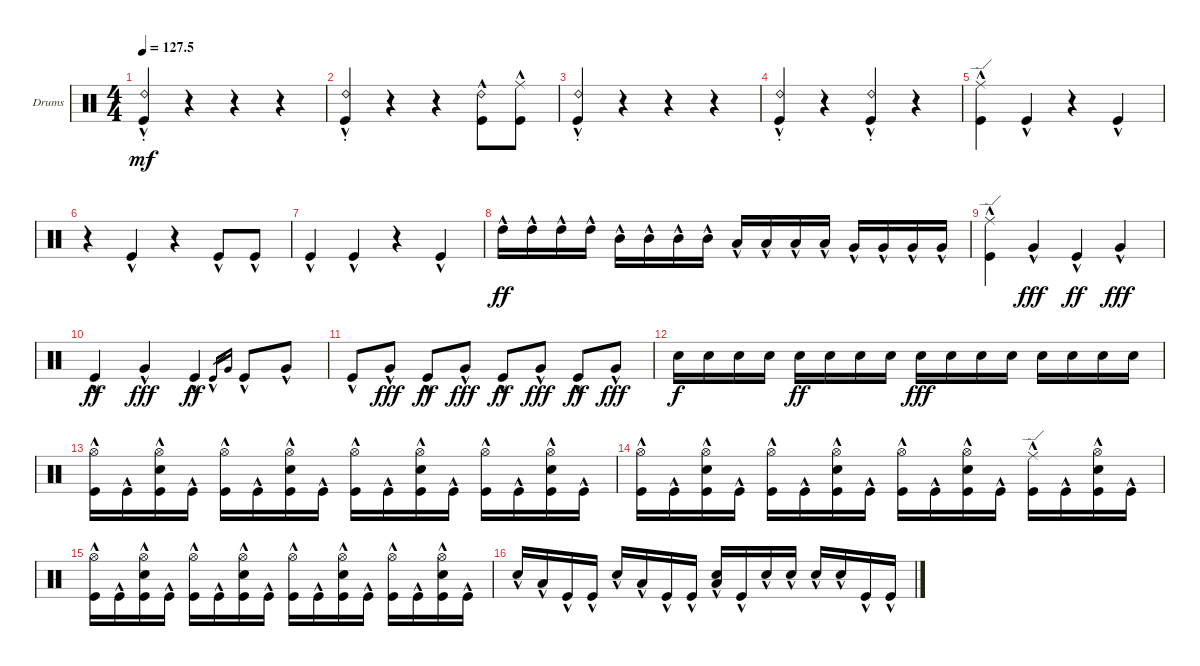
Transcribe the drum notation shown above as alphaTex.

\defaultSystemsLayout 4
\bracketExtendMode groupsimilarinstruments
\firstSystemTrackNameOrientation horizontal
\otherSystemsTrackNameOrientation horizontal
\track ("Drumkit" "Drums") {instrument percussion}
\staff {score}
\articulation defaults
\ts (4 4)
\tempo
127.5
\accidentals auto
\clef neutral
\ottava regular
\simile none
\scale
0.472222
\ks c
("Kick (hit)"{hac} "Ride (bell) 2"{st}).4{dy mf} r.4 r.4 r.4 |
\scale
0.263889 ("Kick (hit)"{hac} "Ride (bell) 2"{st}).4 r.4 r.4 ("Kick (hit)"{hac} "Ride (bell) 2").8 ("Kick (hit)"{hac} "Ride (middle)").8 |
\scale
0.263889 ("Kick (hit)"{hac} "Ride (bell) 2"{st}).4 r.4 r.4 r.4 |
\scale
0.333333 ("Kick (hit)"{hac} "Ride (bell) 2"{st}).4 r.4 ("Kick (hit)"{hac} "Ride (bell) 2"{st}).4 r.4 |
\scale
0.333333 ("Kick (hit)"{hac} "Ride (edge)"{hac}).4 "Kick (hit)"{hac}.4 r.4 "Kick (hit)"{hac}.4 |
r.4 "Kick (hit)"{hac}.4 r.4 "Kick (hit)"{hac}.8 "Kick (hit)"{hac}.8 |
"Kick (hit)"{hac}.4 "Kick (hit)"{hac}.4 r.4 "Kick (hit)"{hac}.4 |
"High Tom (hit)"{hac}.16{dy ff} "High Tom (hit)"{hac}.16 "High Tom (hit)"{hac}.16 "High Tom (hit)"{hac}.16 "Mid Tom (hit)"{hac}.16 "Mid Tom (hit)"{hac}.16 "Mid Tom (hit)"{hac}.16 "Mid Tom (hit)"{hac}.16 "Low Tom (hit)"{hac}.16 "Low Tom (hit)"{hac}.16 "Low Tom (hit)"{hac}.16 "Low Tom (hit)"{hac}.16 "Very Low Tom (hit)"{hac}.16 "Very Low Tom (hit)"{hac}.16 "Very Low Tom (hit)"{hac}.16 "Very Low Tom (hit)"{hac}.16 |
("Kick (hit)"{hac} "Ride (edge)"{hac}).4 "Very Low Tom (hit)"{hac}.4{dy fff} "Kick (hit)"{hac}.4{dy ff} "Very Low Tom (hit)"{hac}.4{dy fff} |
"Kick (hit)"{hac}.4{dy ff} "Very Low Tom (hit)"{hac}.4{dy fff} "Kick (hit)"{hac}.4{dy ff} "Kick (hit)"{hac}.16{gr} "Very Low Tom (hit)".16{gr} "Kick (hit)"{hac}.8 "Very Low Tom (hit)"{hac}.8 |
"Kick (hit)"{hac}.8 "Very Low Tom (hit)"{hac}.8{dy fff} "Kick (hit)"{hac}.8{dy ff} "Very Low Tom (hit)"{hac}.8{dy fff} "Kick (hit)"{hac}.8{dy ff} "Very Low Tom (hit)"{hac}.8{dy fff} "Kick (hit)"{hac}.8{dy ff} "Very Low Tom (hit)"{hac}.8{dy fff} |
"Snare (hit) 2".16{dy f} "Snare (hit) 2".16 "Snare (hit) 2".16 "Snare (hit) 2".16 "Snare (hit) 2".16{dy ff} "Snare (hit) 2".16 "Snare (hit) 2".16 "Snare (hit) 2".16 "Snare (hit) 2".16{dy fff} "Snare (hit) 2".16 "Snare (hit) 2".16 "Snare (hit) 2".16 "Snare (hit) 2".16 "Snare (hit) 2".16 "Snare (hit) 2".16 "Snare (hit) 2".16 |
("Kick (hit)"{hac} "Hi-Hat (open)"{hac}).16 "Kick (hit)"{hac}.16 ("Snare (hit) 2"{hac} "Kick (hit)"{hac} "Hi-Hat (open)"{hac}).16 "Kick (hit)"{hac}.16 ("Kick (hit)"{hac} "Hi-Hat (open)"{hac}).16 "Kick (hit)"{hac}.16 ("Snare (hit) 2"{hac} "Kick (hit)"{hac} "Hi-Hat (open)"{hac}).16 "Kick (hit)"{hac}.16 ("Kick (hit)"{hac} "Hi-Hat (open)"{hac}).16 "Kick (hit)"{hac}.16 ("Kick (hit)"{hac} "Snare (hit) 2"{hac} "Hi-Hat (open)"{hac}).16 "Kick (hit)"{hac}.16 ("Kick (hit)"{hac} "Hi-Hat (open)"{hac}).16 "Kick (hit)"{hac}.16 ("Kick (hit)"{hac} "Snare (hit) 2"{hac} "Hi-Hat (open)"{hac}).16 "Kick (hit)"{hac}.16 |
("Kick (hit)"{hac} "Hi-Hat (open)"{hac}).16 "Kick (hit)"{hac}.16 ("Snare (hit) 2"{hac} "Kick (hit)"{hac} "Hi-Hat (open)"{hac}).16 "Kick (hit)"{hac}.16 ("Kick (hit)"{hac} "Hi-Hat (open)"{hac}).16 "Kick (hit)"{hac}.16 ("Snare (hit) 2"{hac} "Kick (hit)"{hac} "Hi-Hat (open)"{hac}).16 "Kick (hit)"{hac}.16 ("Kick (hit)"{hac} "Hi-Hat (open)"{hac}).16 "Kick (hit)"{hac}.16 ("Kick (hit)"{hac} "Snare (hit) 2"{hac} "Hi-Hat (open)"{hac}).16 "Kick (hit)"{hac}.16 ("Kick (hit)"{hac} "Ride (edge)"{hac}).16 "Kick (hit)"{hac}.16 ("Kick (hit)"{hac} "Snare (hit) 2"{hac} "Hi-Hat (open)"{hac}).16 "Kick (hit)"{hac}.16 |
("Kick (hit)"{hac} "Hi-Hat (open)"{hac}).16 "Kick (hit)"{hac}.16 ("Snare (hit) 2"{hac} "Kick (hit)"{hac} "Hi-Hat (open)"{hac}).16 "Kick (hit)"{hac}.16 ("Kick (hit)"{hac} "Hi-Hat (open)"{hac}).16 "Kick (hit)"{hac}.16 ("Snare (hit) 2"{hac} "Kick (hit)"{hac} "Hi-Hat (open)"{hac}).16 "Kick (hit)"{hac}.16 ("Kick (hit)"{hac} "Hi-Hat (open)"{hac}).16 "Kick (hit)"{hac}.16 ("Kick (hit)"{hac} "Snare (hit) 2"{hac} "Hi-Hat (open)"{hac}).16 "Kick (hit)"{hac}.16 ("Kick (hit)"{hac} "Hi-Hat (open)"{hac}).16 "Kick (hit)"{hac}.16 ("Kick (hit)"{hac} "Snare (hit) 2"{hac} "Hi-Hat (open)"{hac}).16 "Kick (hit)"{hac}.16 |
"Snare (hit) 2"{hac}.16 "Low Tom (hit)"{hac}.16 "Kick (hit)"{hac}.16 "Kick (hit)"{hac}.16 "Snare (hit) 2"{hac}.16 "Low Tom (hit)"{hac}.16 "Kick (hit)"{hac}.16 "Kick (hit)"{hac}.16 ("Low Tom (hit)"{hac} "Snare (hit) 2"{hac}).16 "Kick (hit)"{hac}.16 "Snare (hit) 2"{hac}.16 "Snare (hit) 2"{hac}.16 "Snare (hit) 2"{hac}.16 "Snare (hit) 2"{hac}.16 "Kick (hit)"{hac}.16 "Kick (hit)"{hac}.16
